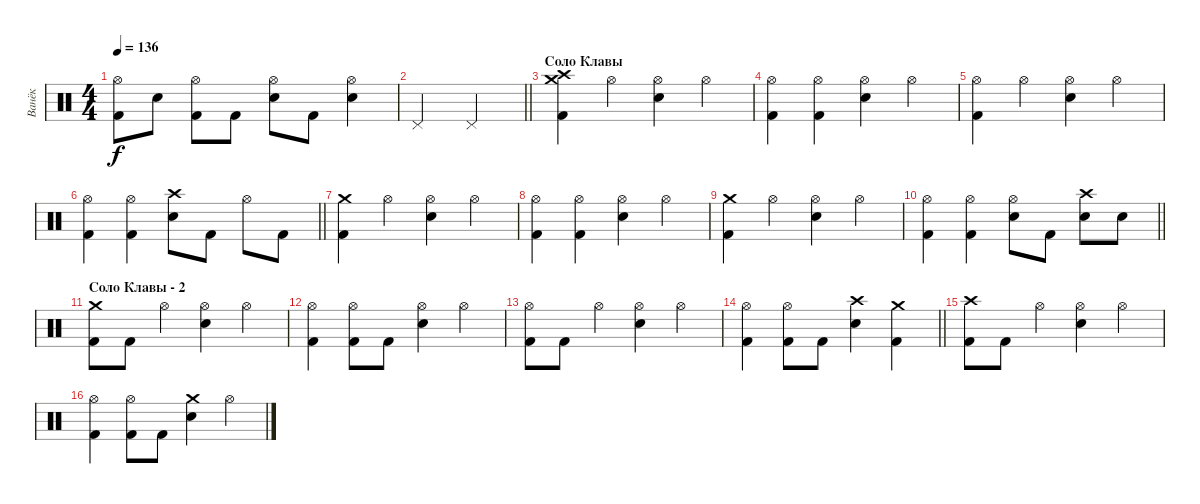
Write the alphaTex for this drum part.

\track ("Ванёк" "Ванёк") {instrument percussion}
\staff {score}
\articulation defaults
\ts (4 4)
\tempo 136
\clef neutral
\ks c
("Hi-Hat (open)" "Kick (hit) 2").8{dy f} "Snare (hit) 2".8 ("Hi-Hat (open)" "Kick (hit) 2").8 "Kick (hit) 2".8 ("Hi-Hat (open)" "Snare (hit) 2").8 "Kick (hit) 2".8 ("Hi-Hat (open)" "Snare (hit) 2").4 |
\barLineRight lightlight "Pedal Hi-Hat (hit)".2 "Pedal Hi-Hat (hit)".2
|
\section ("" "Соло Клавы")
("Crash medium (hit)" "Crash high (hit)" "Kick (hit) 2").4 "Hi-Hat (open)".4 ("Hi-Hat (open)" "Snare (hit) 2").4 "Hi-Hat (open)".4 |
("Hi-Hat (open)" "Kick (hit) 2").4 ("Hi-Hat (open)" "Kick (hit) 2").4 ("Hi-Hat (open)" "Snare (hit) 2").4 "Hi-Hat (open)".4 |
("Hi-Hat (open)" "Kick (hit) 2").4 "Hi-Hat (open)".4 ("Hi-Hat (open)" "Snare (hit) 2").4 "Hi-Hat (open)".4 |
\barLineRight lightlight
("Hi-Hat (open)" "Kick (hit) 2").4 ("Hi-Hat (open)" "Kick (hit) 2").4 ("Crash high (hit)" "Snare (hit) 2").8 "Kick (hit) 2".8 "Hi-Hat (open)".8 "Kick (hit) 2".8 |
("Crash medium (hit)" "Kick (hit) 2").4 "Hi-Hat (open)".4 ("Hi-Hat (open)" "Snare (hit) 2").4 "Hi-Hat (open)".4 |
("Hi-Hat (open)" "Kick (hit) 2").4 ("Hi-Hat (open)" "Kick (hit) 2").4 ("Hi-Hat (open)" "Snare (hit) 2").4 "Hi-Hat (open)".4 |
("Crash medium (hit)" "Kick (hit) 2").4 "Hi-Hat (open)".4 ("Hi-Hat (open)" "Snare (hit) 2").4 "Hi-Hat (open)".4 |
\barLineRight lightlight
("Hi-Hat (open)" "Kick (hit) 2").4 ("Hi-Hat (open)" "Kick (hit) 2").4 ("Hi-Hat (open)" "Snare (hit) 2").8 "Kick (hit) 2".8 ("Crash high (hit)" "Snare (hit) 2").8 "Snare (hit) 2".8 |
\section ("" "Соло Клавы - 2")
("Crash medium (hit)" "Kick (hit) 2").8 "Kick (hit) 2".8 "Hi-Hat (open)".4 ("Hi-Hat (open)" "Snare (hit) 2").4 "Hi-Hat (open)".4 |
("Hi-Hat (open)" "Kick (hit) 2").4 ("Hi-Hat (open)" "Kick (hit) 2").8 "Kick (hit) 2".8 ("Hi-Hat (open)" "Snare (hit) 2").4 "Hi-Hat (open)".4 |
("Hi-Hat (open)" "Kick (hit) 2").8 "Kick (hit) 2".8 "Hi-Hat (open)".4 ("Hi-Hat (open)" "Snare (hit) 2").4 "Hi-Hat (open)".4 |
\barLineRight lightlight
("Hi-Hat (open)" "Kick (hit) 2").4 ("Hi-Hat (open)" "Kick (hit) 2").8 "Kick (hit) 2".8 ("Crash high (hit)" "Snare (hit) 2").4 ("Crash medium (hit)" "Kick (hit) 2").4 |
("Crash high (hit)" "Kick (hit) 2").8 "Kick (hit) 2".8 "Hi-Hat (open)".4 ("Hi-Hat (open)" "Snare (hit) 2").4 "Hi-Hat (open)".4 |
("Hi-Hat (open)" "Kick (hit) 2").4 ("Hi-Hat (open)" "Kick (hit) 2").8 "Kick (hit) 2".8 ("Crash medium (hit)" "Snare (hit) 2").4 "Hi-Hat (open)".4
